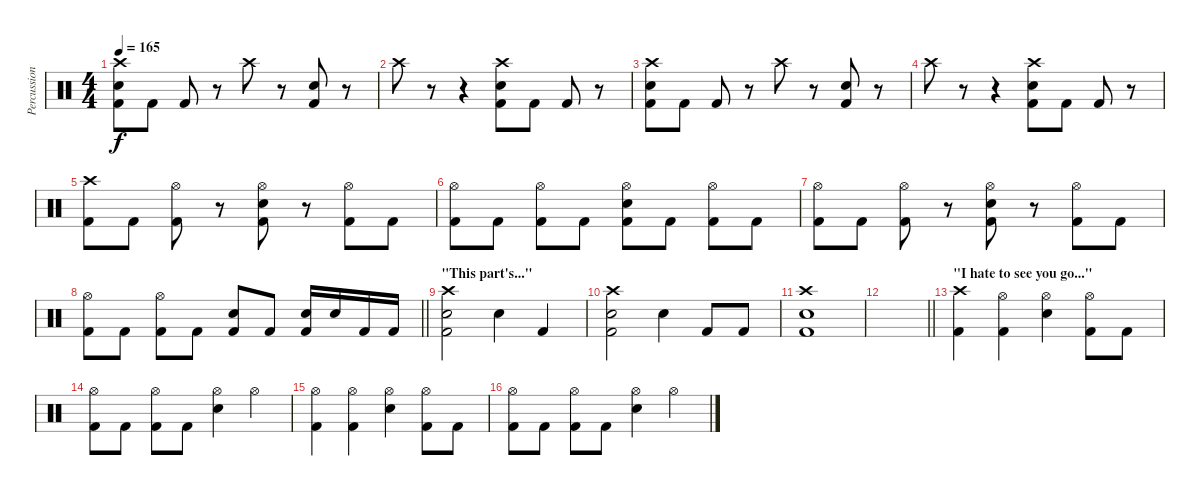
\track ("Percussion" "Percussion") {instrument percussion}
\staff {score}
\articulation defaults
\ts (4 4)
\tempo 165
\clef neutral
\ks c
("Crash high (hit)" "Snare (hit) 2" "Kick (hit) 2").8{dy f} "Kick (hit) 2".8 "Kick (hit) 2".8 r.8 "Crash high (hit)".8 r.8 ("Snare (hit) 2" "Kick (hit) 2").8 r.8 |
"Crash high (hit)".8 r.8 r.4 ("Crash high (hit)" "Electric Snare (hit)" "Kick (hit) 2").8 "Kick (hit) 2".8 "Kick (hit) 2".8 r.8 |
("Crash high (hit)" "Snare (hit) 2" "Kick (hit) 2").8 "Kick (hit) 2".8 "Kick (hit) 2".8 r.8 "Crash high (hit)".8 r.8 ("Snare (hit) 2" "Kick (hit) 2").8 r.8 |
"Crash high (hit)".8 r.8 r.4 ("Crash high (hit)" "Electric Snare (hit)" "Kick (hit) 2").8 "Kick (hit) 2".8 "Kick (hit) 2".8 r.8 |
("Crash high (hit)" "Kick (hit) 2").8 "Kick (hit) 2".8 ("Hi-Hat (open)" "Kick (hit) 2").8 r.8 ("Hi-Hat (open)" "Electric Snare (hit)" "Kick (hit) 2").8 r.8 ("Hi-Hat (open)" "Kick (hit) 2").8 "Kick (hit) 2".8 |
("Hi-Hat (open)" "Kick (hit) 2").8 "Kick (hit) 2".8 ("Hi-Hat (open)" "Kick (hit) 2").8 "Kick (hit) 2".8 ("Hi-Hat (open)" "Electric Snare (hit)" "Kick (hit) 2").8 "Kick (hit) 2".8 ("Hi-Hat (open)" "Kick (hit) 2").8 "Kick (hit) 2".8 |
("Hi-Hat (open)" "Kick (hit) 2").8 "Kick (hit) 2".8 ("Hi-Hat (open)" "Kick (hit) 2").8 r.8 ("Hi-Hat (open)" "Electric Snare (hit)" "Kick (hit) 2").8 r.8 ("Hi-Hat (open)" "Kick (hit) 2").8 "Kick (hit) 2".8 |
\barLineRight lightlight
("Hi-Hat (open)" "Kick (hit) 2").8 "Kick (hit) 2".8 ("Hi-Hat (open)" "Kick (hit) 2").8 "Kick (hit) 2".8 ("Electric Snare (hit)" "Kick (hit) 2").8 "Kick (hit) 2".8 ("Electric Snare (hit)" "Kick (hit) 2").16 "Electric Snare (hit)".16 "Kick (hit) 2".16 "Kick (hit) 2".16 |
\section ("" "\"This part's...\"")
("Crash high (hit)" "Electric Snare (hit)" "Kick (hit) 2").2 "Electric Snare (hit)".4 "Kick (hit) 2".4 |
("Crash high (hit)" "Electric Snare (hit)" "Kick (hit) 2").2 "Electric Snare (hit)".4 "Kick (hit) 2".8 "Kick (hit) 2".8 |
("Crash high (hit)" "Electric Snare (hit)" "Kick (hit) 2").1 |
\barLineRight lightlight
|
\section ("" "\"I hate to see you go...\"")
("Crash high (hit)" "Kick (hit) 2").4 ("Hi-Hat (open)" "Kick (hit) 2").4 ("Hi-Hat (open)" "Electric Snare (hit)").4 ("Hi-Hat (open)" "Kick (hit) 2").8 "Kick (hit) 2".8 |
("Hi-Hat (open)" "Kick (hit) 2").8 "Kick (hit) 2".8 ("Hi-Hat (open)" "Kick (hit) 2").8 "Kick (hit) 2".8 ("Hi-Hat (open)" "Electric Snare (hit)").4 "Hi-Hat (open)".4 |
("Hi-Hat (open)" "Kick (hit) 2").4 ("Hi-Hat (open)" "Kick (hit) 2").4 ("Hi-Hat (open)" "Electric Snare (hit)").4 ("Hi-Hat (open)" "Kick (hit) 2").8 "Kick (hit) 2".8 |
("Hi-Hat (open)" "Kick (hit) 2").8 "Kick (hit) 2".8 ("Hi-Hat (open)" "Kick (hit) 2").8 "Kick (hit) 2".8 ("Hi-Hat (open)" "Electric Snare (hit)").4 "Hi-Hat (open)".4
